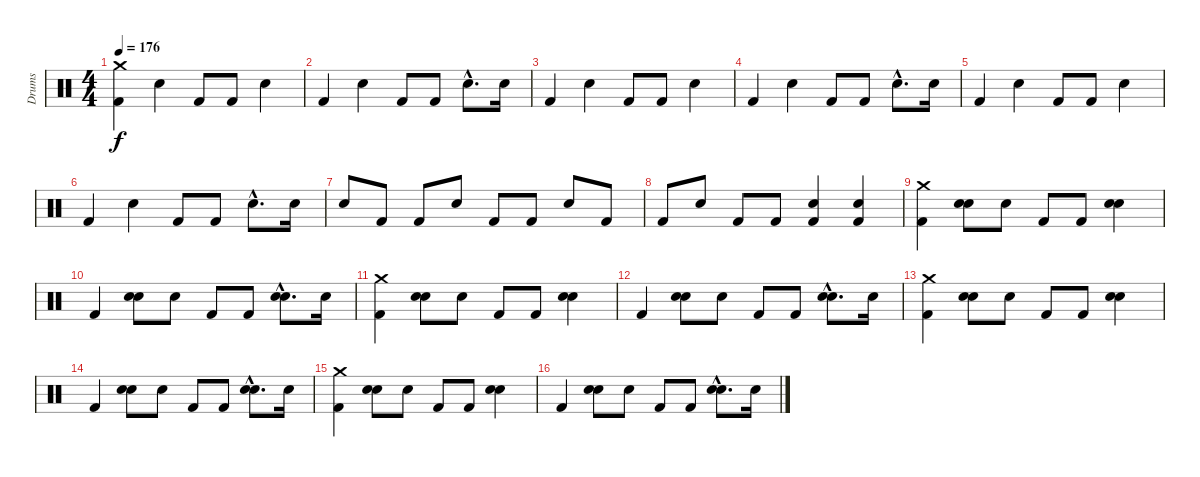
\track ("Drums" "Drums") {instrument percussion}
\staff {score}
\articulation defaults
\ts (4 4)
\tempo 176
\clef neutral
\ks c
("Kick (hit) 2" "Crash medium (hit)").4{dy f volume 15} "Snare (hit) 2".4 "Kick (hit) 2".8 "Kick (hit) 2".8 "Snare (hit) 2".4 |
"Kick (hit) 2".4 "Snare (hit) 2".4 "Kick (hit) 2".8 "Kick (hit) 2".8 "Snare (hit) 2"{hac}.8{d} "Snare (hit) 2".16 |
"Kick (hit) 2".4 "Snare (hit) 2".4 "Kick (hit) 2".8 "Kick (hit) 2".8 "Snare (hit) 2".4 |
"Kick (hit) 2".4 "Snare (hit) 2".4 "Kick (hit) 2".8 "Kick (hit) 2".8 "Snare (hit) 2"{hac}.8{d} "Snare (hit) 2".16 |
"Kick (hit) 2".4 "Snare (hit) 2".4 "Kick (hit) 2".8 "Kick (hit) 2".8 "Snare (hit) 2".4 |
"Kick (hit) 2".4 "Snare (hit) 2".4 "Kick (hit) 2".8 "Kick (hit) 2".8 "Snare (hit) 2"{hac}.8{d} "Snare (hit) 2".16 |
"Snare (hit) 2".8 "Kick (hit) 2".8 "Kick (hit) 2".8 "Snare (hit) 2".8 "Kick (hit) 2".8 "Kick (hit) 2".8 "Snare (hit) 2".8 "Kick (hit) 2".8 |
"Kick (hit) 2".8 "Snare (hit) 2".8 "Kick (hit) 2".8 "Kick (hit) 2".8 ("Kick (hit) 2" "Snare (hit) 2").4 ("Kick (hit) 2" "Snare (hit) 2").4 |
("Kick (hit) 2" "Crash medium (hit)").4{volume 15} ("Snare (hit) 2" "Hand Clap (hit)").8 "Hand Clap (hit)".8 "Kick (hit) 2".8 "Kick (hit) 2".8 ("Snare (hit) 2" "Hand Clap (hit)").4 |
"Kick (hit) 2".4 ("Snare (hit) 2" "Hand Clap (hit)").8 "Hand Clap (hit)".8 "Kick (hit) 2".8 "Kick (hit) 2".8 ("Snare (hit) 2"{hac} "Hand Clap (hit)"{hac}).8{d} "Snare (hit) 2".16 |
("Kick (hit) 2" "Crash medium (hit)").4{volume 15} ("Snare (hit) 2" "Hand Clap (hit)").8 "Hand Clap (hit)".8 "Kick (hit) 2".8 "Kick (hit) 2".8 ("Snare (hit) 2" "Hand Clap (hit)").4 |
"Kick (hit) 2".4 ("Snare (hit) 2" "Hand Clap (hit)").8 "Hand Clap (hit)".8 "Kick (hit) 2".8 "Kick (hit) 2".8 ("Snare (hit) 2"{hac} "Hand Clap (hit)"{hac}).8{d} "Snare (hit) 2".16 |
("Kick (hit) 2" "Crash medium (hit)").4{volume 15} ("Snare (hit) 2" "Hand Clap (hit)").8 "Hand Clap (hit)".8 "Kick (hit) 2".8 "Kick (hit) 2".8 ("Snare (hit) 2" "Hand Clap (hit)").4 |
"Kick (hit) 2".4 ("Snare (hit) 2" "Hand Clap (hit)").8 "Hand Clap (hit)".8 "Kick (hit) 2".8 "Kick (hit) 2".8 ("Snare (hit) 2"{hac} "Hand Clap (hit)"{hac}).8{d} "Snare (hit) 2".16 |
("Kick (hit) 2" "Crash medium (hit)").4{volume 15} ("Snare (hit) 2" "Hand Clap (hit)").8 "Hand Clap (hit)".8 "Kick (hit) 2".8 "Kick (hit) 2".8 ("Snare (hit) 2" "Hand Clap (hit)").4 |
"Kick (hit) 2".4 ("Snare (hit) 2" "Hand Clap (hit)").8 "Hand Clap (hit)".8 "Kick (hit) 2".8 "Kick (hit) 2".8 ("Snare (hit) 2"{hac} "Hand Clap (hit)"{hac}).8{d} "Snare (hit) 2".16
